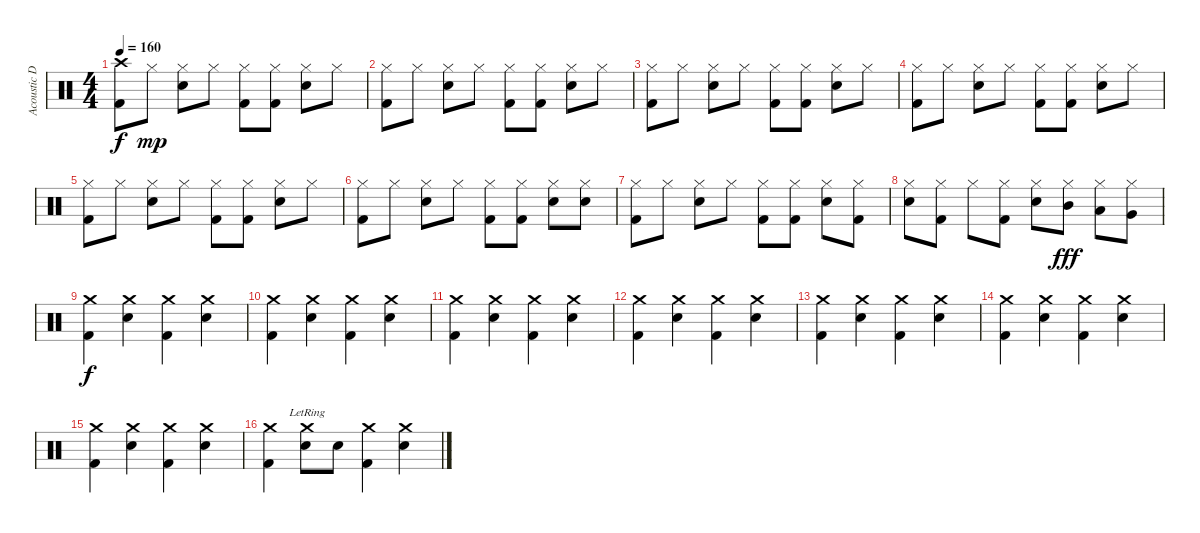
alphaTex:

\track ("Acoustic Drums" "Acoustic D") {instrument percussion}
\staff {score}
\articulation defaults
\ts (4 4)
\tempo 160
\clef neutral
\ks c
("Crash high (hit)" "Kick (hit) 2").8{dy f volume 13} "Hi-Hat (closed)".8{dy mp} ("Hi-Hat (closed)" "Snare (hit) 2").8 "Hi-Hat (closed)".8 ("Hi-Hat (closed)" "Kick (hit) 2").8 ("Hi-Hat (closed)" "Kick (hit) 2").8 ("Hi-Hat (closed)" "Snare (hit) 2").8 "Hi-Hat (closed)".8 |
("Hi-Hat (closed)" "Kick (hit) 2").8 "Hi-Hat (closed)".8 ("Hi-Hat (closed)" "Snare (hit) 2").8 "Hi-Hat (closed)".8 ("Hi-Hat (closed)" "Kick (hit) 2").8 ("Hi-Hat (closed)" "Kick (hit) 2").8 ("Hi-Hat (closed)" "Snare (hit) 2").8 "Hi-Hat (closed)".8 |
("Hi-Hat (closed)" "Kick (hit) 2").8 "Hi-Hat (closed)".8 ("Hi-Hat (closed)" "Snare (hit) 2").8 "Hi-Hat (closed)".8 ("Hi-Hat (closed)" "Kick (hit) 2").8 ("Hi-Hat (closed)" "Kick (hit) 2").8 ("Hi-Hat (closed)" "Snare (hit) 2").8 "Hi-Hat (closed)".8 |
("Hi-Hat (closed)" "Kick (hit) 2").8 "Hi-Hat (closed)".8 ("Hi-Hat (closed)" "Snare (hit) 2").8 "Hi-Hat (closed)".8 ("Hi-Hat (closed)" "Kick (hit) 2").8 ("Hi-Hat (closed)" "Kick (hit) 2").8 ("Hi-Hat (closed)" "Snare (hit) 2").8 "Hi-Hat (closed)".8 |
("Hi-Hat (closed)" "Kick (hit) 2").8 "Hi-Hat (closed)".8 ("Hi-Hat (closed)" "Snare (hit) 2").8 "Hi-Hat (closed)".8 ("Hi-Hat (closed)" "Kick (hit) 2").8 ("Hi-Hat (closed)" "Kick (hit) 2").8 ("Hi-Hat (closed)" "Snare (hit) 2").8 "Hi-Hat (closed)".8 |
("Hi-Hat (closed)" "Kick (hit) 2").8 "Hi-Hat (closed)".8 ("Hi-Hat (closed)" "Snare (hit) 2").8 "Hi-Hat (closed)".8 ("Hi-Hat (closed)" "Kick (hit) 2").8 ("Hi-Hat (closed)" "Kick (hit) 2").8 ("Hi-Hat (closed)" "Snare (hit) 2").8 ("Hi-Hat (closed)" "Snare (hit) 2").8 |
("Hi-Hat (closed)" "Kick (hit) 2").8 "Hi-Hat (closed)".8 ("Hi-Hat (closed)" "Snare (hit) 2").8 "Hi-Hat (closed)".8 ("Hi-Hat (closed)" "Kick (hit) 2").8 ("Hi-Hat (closed)" "Kick (hit) 2").8 ("Hi-Hat (closed)" "Snare (hit) 2").8 ("Hi-Hat (closed)" "Kick (hit) 2").8 |
("Hi-Hat (closed)" "Snare (hit) 2").8 ("Hi-Hat (closed)" "Kick (hit) 2").8 "Hi-Hat (closed)".8 ("Hi-Hat (closed)" "Kick (hit) 2").8 ("Hi-Hat (closed)" "Snare (hit) 2").8 ("Hi-Hat (closed)" "Mid Tom (hit)").8{dy fff} ("Hi-Hat (closed)" "Low Tom (hit)").8 ("Hi-Hat (closed)" "Very Low Tom (hit)").8 |
("Crash medium (hit)" "Kick (hit) 2").4{dy f} ("Crash medium (hit)" "Snare (hit) 2").4 ("Crash medium (hit)" "Kick (hit) 2").4 ("Crash medium (hit)" "Snare (hit) 2").4 |
("Crash medium (hit)" "Kick (hit) 2").4 ("Crash medium (hit)" "Snare (hit) 2").4 ("Crash medium (hit)" "Kick (hit) 2").4 ("Crash medium (hit)" "Snare (hit) 2").4 |
("Crash medium (hit)" "Kick (hit) 2").4 ("Crash medium (hit)" "Snare (hit) 2").4 ("Crash medium (hit)" "Kick (hit) 2").4 ("Crash medium (hit)" "Snare (hit) 2").4 |
("Crash medium (hit)" "Kick (hit) 2").4 ("Crash medium (hit)" "Snare (hit) 2").4 ("Crash medium (hit)" "Kick (hit) 2").4 ("Crash medium (hit)" "Snare (hit) 2").4 |
("Crash medium (hit)" "Kick (hit) 2").4 ("Crash medium (hit)" "Snare (hit) 2").4 ("Crash medium (hit)" "Kick (hit) 2").4 ("Crash medium (hit)" "Snare (hit) 2").4 |
("Crash medium (hit)" "Kick (hit) 2").4 ("Crash medium (hit)" "Snare (hit) 2").4 ("Crash medium (hit)" "Kick (hit) 2").4 ("Crash medium (hit)" "Snare (hit) 2").4 |
("Crash medium (hit)" "Kick (hit) 2").4 ("Crash medium (hit)" "Snare (hit) 2").4 ("Crash medium (hit)" "Kick (hit) 2").4 ("Crash medium (hit)" "Snare (hit) 2").4 |
("Crash medium (hit)" "Kick (hit) 2").4 ("Crash medium (hit)"{lr} "Snare (hit) 2").8 "Snare (hit) 2".8 ("Crash medium (hit)" "Kick (hit) 2").4 ("Crash medium (hit)" "Snare (hit) 2").4
